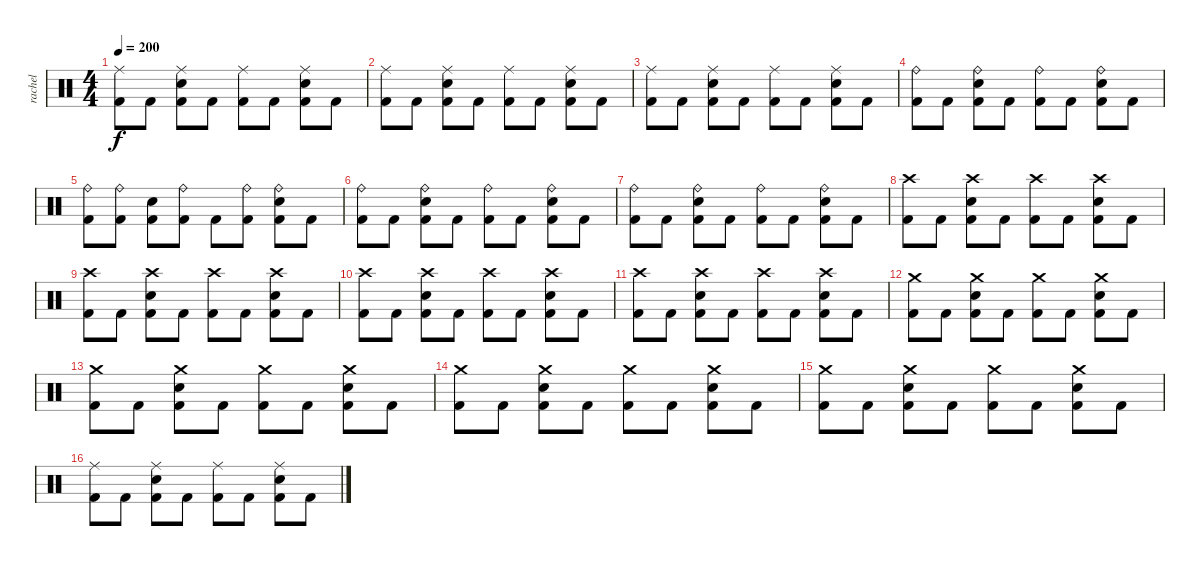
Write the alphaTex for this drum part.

\track ("rachel" "rachel") {instrument percussion}
\staff {score}
\articulation defaults
\ts (4 4)
\tempo 200
\clef neutral
\ks c
("Ride (middle)" "Kick (hit) 2").8{dy f} "Kick (hit) 2".8 ("Ride (middle)" "Electric Snare (hit)" "Kick (hit) 2").8 "Kick (hit) 2".8 ("Ride (middle)" "Kick (hit) 2").8 "Kick (hit) 2".8 ("Ride (middle)" "Electric Snare (hit)" "Kick (hit) 2").8 "Kick (hit) 2".8 |
("Ride (middle)" "Kick (hit) 2").8 "Kick (hit) 2".8 ("Ride (middle)" "Electric Snare (hit)" "Kick (hit) 2").8 "Kick (hit) 2".8 ("Ride (middle)" "Kick (hit) 2").8 "Kick (hit) 2".8 ("Ride (middle)" "Electric Snare (hit)" "Kick (hit) 2").8 "Kick (hit) 2".8 |
("Ride (middle)" "Kick (hit) 2").8 "Kick (hit) 2".8 ("Ride (middle)" "Electric Snare (hit)" "Kick (hit) 2").8 "Kick (hit) 2".8 ("Ride (middle)" "Kick (hit) 2").8 "Kick (hit) 2".8 ("Ride (middle)" "Electric Snare (hit)" "Kick (hit) 2").8 "Kick (hit) 2".8 |
("Ride (bell)" "Kick (hit) 2").8 "Kick (hit) 2".8 ("Ride (bell)" "Electric Snare (hit)" "Kick (hit) 2").8 "Kick (hit) 2".8 ("Ride (bell)" "Kick (hit) 2").8 "Kick (hit) 2".8 ("Ride (bell)" "Electric Snare (hit)" "Kick (hit) 2").8 "Kick (hit) 2".8 |
("Ride (bell)" "Kick (hit) 2").8 ("Ride (bell)" "Kick (hit) 2").8 ("Electric Snare (hit)" "Kick (hit) 2").8 ("Ride (bell)" "Kick (hit) 2").8 "Kick (hit) 2".8 ("Ride (bell)" "Kick (hit) 2").8 ("Ride (bell)" "Electric Snare (hit)" "Kick (hit) 2").8 "Kick (hit) 2".8 |
("Ride (bell)" "Kick (hit) 2").8 "Kick (hit) 2".8 ("Ride (bell)" "Electric Snare (hit)" "Kick (hit) 2").8 "Kick (hit) 2".8 ("Ride (bell)" "Kick (hit) 2").8 "Kick (hit) 2".8 ("Ride (bell)" "Electric Snare (hit)" "Kick (hit) 2").8 "Kick (hit) 2".8 |
("Ride (bell)" "Kick (hit) 2").8 "Kick (hit) 2".8 ("Ride (bell)" "Electric Snare (hit)" "Kick (hit) 2").8 "Kick (hit) 2".8 ("Ride (bell)" "Kick (hit) 2").8 "Kick (hit) 2".8 ("Ride (bell)" "Electric Snare (hit)" "Kick (hit) 2").8 "Kick (hit) 2".8 |
("Crash high (hit)" "Kick (hit) 2").8 "Kick (hit) 2".8 ("Crash high (hit)" "Electric Snare (hit)" "Kick (hit) 2").8 "Kick (hit) 2".8 ("Crash high (hit)" "Kick (hit) 2").8 "Kick (hit) 2".8 ("Crash high (hit)" "Electric Snare (hit)" "Kick (hit) 2").8 "Kick (hit) 2".8 |
("Crash high (hit)" "Kick (hit) 2").8 "Kick (hit) 2".8 ("Crash high (hit)" "Electric Snare (hit)" "Kick (hit) 2").8 "Kick (hit) 2".8 ("Crash high (hit)" "Kick (hit) 2").8 "Kick (hit) 2".8 ("Crash high (hit)" "Electric Snare (hit)" "Kick (hit) 2").8 "Kick (hit) 2".8 |
("Crash high (hit)" "Kick (hit) 2").8 "Kick (hit) 2".8 ("Crash high (hit)" "Electric Snare (hit)" "Kick (hit) 2").8 "Kick (hit) 2".8 ("Crash high (hit)" "Kick (hit) 2").8 "Kick (hit) 2".8 ("Crash high (hit)" "Electric Snare (hit)" "Kick (hit) 2").8 "Kick (hit) 2".8 |
("Crash high (hit)" "Kick (hit) 2").8 "Kick (hit) 2".8 ("Crash high (hit)" "Electric Snare (hit)" "Kick (hit) 2").8 "Kick (hit) 2".8 ("Crash high (hit)" "Kick (hit) 2").8 "Kick (hit) 2".8 ("Crash high (hit)" "Electric Snare (hit)" "Kick (hit) 2").8 "Kick (hit) 2".8 |
("Crash medium (hit)" "Kick (hit) 2").8 "Kick (hit) 2".8 ("Crash medium (hit)" "Electric Snare (hit)" "Kick (hit) 2").8 "Kick (hit) 2".8 ("Crash medium (hit)" "Kick (hit) 2").8 "Kick (hit) 2".8 ("Crash medium (hit)" "Electric Snare (hit)" "Kick (hit) 2").8 "Kick (hit) 2".8 |
("Crash medium (hit)" "Kick (hit) 2").8 "Kick (hit) 2".8 ("Crash medium (hit)" "Electric Snare (hit)" "Kick (hit) 2").8 "Kick (hit) 2".8 ("Crash medium (hit)" "Kick (hit) 2").8 "Kick (hit) 2".8 ("Crash medium (hit)" "Electric Snare (hit)" "Kick (hit) 2").8 "Kick (hit) 2".8 |
("Crash medium (hit)" "Kick (hit) 2").8 "Kick (hit) 2".8 ("Crash medium (hit)" "Electric Snare (hit)" "Kick (hit) 2").8 "Kick (hit) 2".8 ("Crash medium (hit)" "Kick (hit) 2").8 "Kick (hit) 2".8 ("Crash medium (hit)" "Electric Snare (hit)" "Kick (hit) 2").8 "Kick (hit) 2".8 |
("Crash medium (hit)" "Kick (hit) 2").8 "Kick (hit) 2".8 ("Crash medium (hit)" "Electric Snare (hit)" "Kick (hit) 2").8 "Kick (hit) 2".8 ("Crash medium (hit)" "Kick (hit) 2").8 "Kick (hit) 2".8 ("Crash medium (hit)" "Electric Snare (hit)" "Kick (hit) 2").8 "Kick (hit) 2".8 |
("Ride (middle)" "Kick (hit) 2").8 "Kick (hit) 2".8 ("Ride (middle)" "Electric Snare (hit)" "Kick (hit) 2").8 "Kick (hit) 2".8 ("Ride (middle)" "Kick (hit) 2").8 "Kick (hit) 2".8 ("Ride (middle)" "Electric Snare (hit)" "Kick (hit) 2").8 "Kick (hit) 2".8
